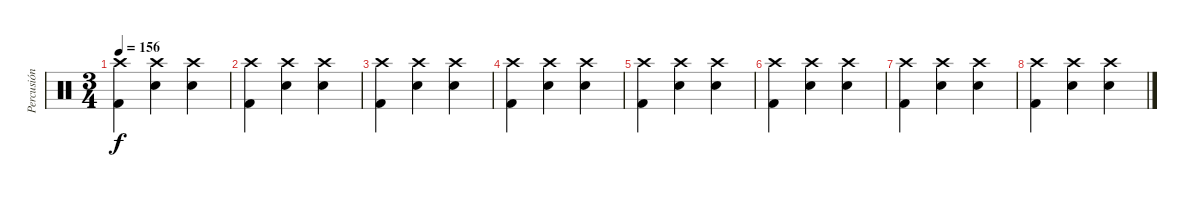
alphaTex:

\track ("Percusión" "Percusión") {instrument percussion}
\staff {score}
\articulation defaults
\ts (3 4)
\tempo 156
\clef neutral
\ks c
("Crash high (hit)" "Kick (hit) 2").4{dy f} ("Crash high (hit)" "Electric Snare (hit)").4 ("Crash high (hit)" "Electric Snare (hit)").4 |
("Crash high (hit)" "Kick (hit) 2").4 ("Crash high (hit)" "Electric Snare (hit)").4 ("Crash high (hit)" "Electric Snare (hit)").4 |
("Crash high (hit)" "Kick (hit) 2").4 ("Crash high (hit)" "Electric Snare (hit)").4 ("Crash high (hit)" "Electric Snare (hit)").4 |
("Crash high (hit)" "Kick (hit) 2").4 ("Crash high (hit)" "Electric Snare (hit)").4 ("Crash high (hit)" "Electric Snare (hit)").4 |
("Crash high (hit)" "Kick (hit) 2").4 ("Crash high (hit)" "Electric Snare (hit)").4 ("Crash high (hit)" "Electric Snare (hit)").4 |
("Crash high (hit)" "Kick (hit) 2").4 ("Crash high (hit)" "Electric Snare (hit)").4 ("Crash high (hit)" "Electric Snare (hit)").4 |
("Crash high (hit)" "Kick (hit) 2").4 ("Crash high (hit)" "Electric Snare (hit)").4 ("Crash high (hit)" "Electric Snare (hit)").4 |
("Crash high (hit)" "Kick (hit) 2").4 ("Crash high (hit)" "Electric Snare (hit)").4 ("Crash high (hit)" "Electric Snare (hit)").4
